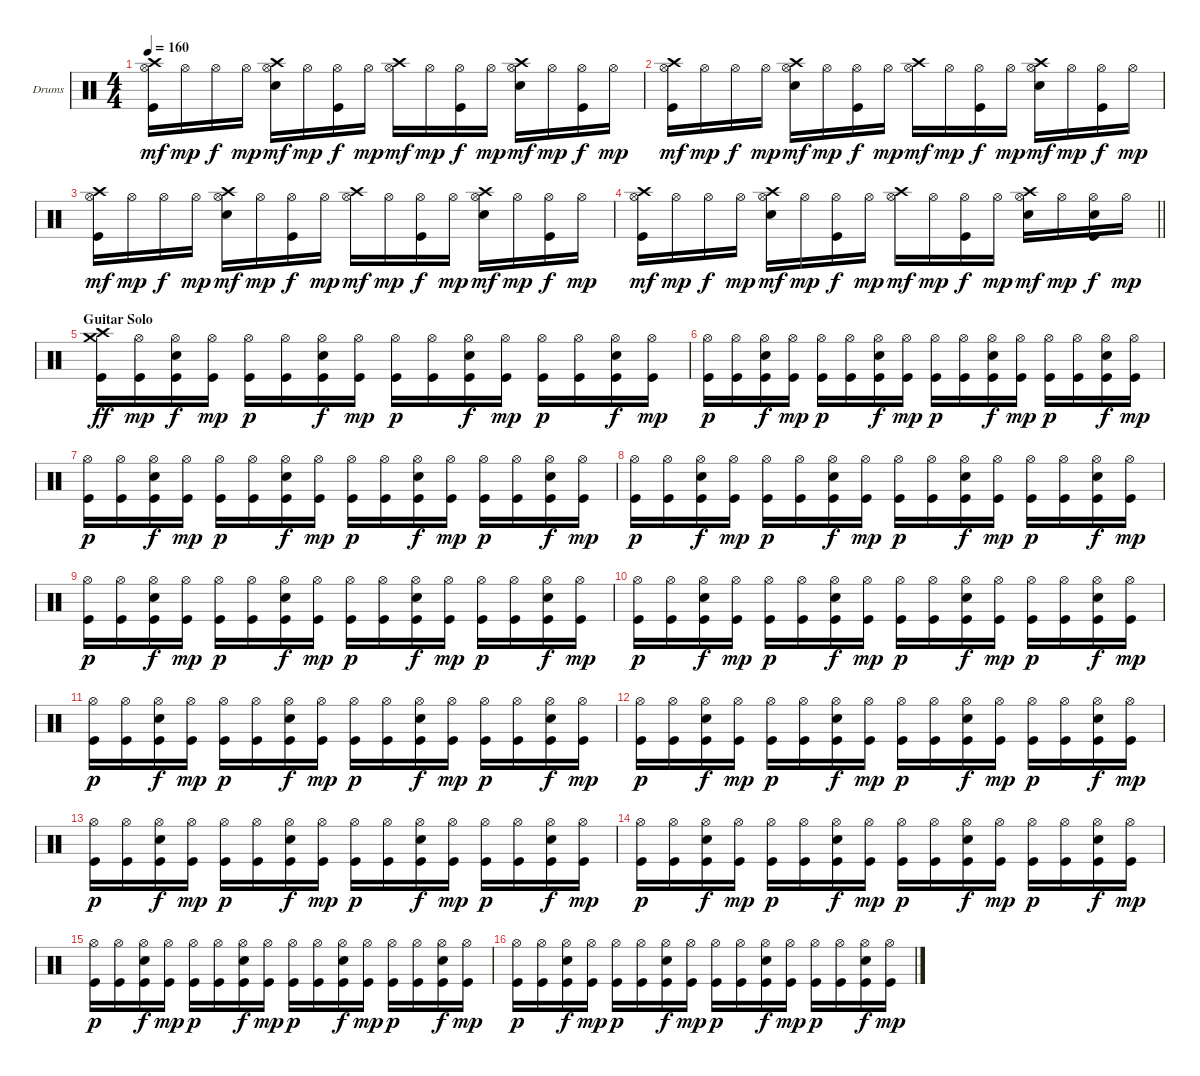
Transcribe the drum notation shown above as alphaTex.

\bracketExtendMode groupsimilarinstruments
\firstSystemTrackNameOrientation horizontal
\otherSystemsTrackNameOrientation horizontal
\track ("Drumkit" "Drums") {instrument percussion}
\staff {score}
\articulation defaults
\ts (4 4)
\tempo 160
\clef neutral
\ks c
("Crash high (hit)" "Hi-Hat (open)" "Kick (hit)").16{dy mf} "Hi-Hat (open)".16{dy mp} "Hi-Hat (open)".16{dy f} "Hi-Hat (open)".16{dy mp} ("Crash high (hit)" "Hi-Hat (open)" "Snare (hit) 2").16{dy mf} "Hi-Hat (open)".16{dy mp} ("Hi-Hat (open)" "Kick (hit)").16{dy f} "Hi-Hat (open)".16{dy mp} ("Crash high (hit)" "Hi-Hat (open)").16{dy mf} "Hi-Hat (open)".16{dy mp} ("Hi-Hat (open)" "Kick (hit)").16{dy f} "Hi-Hat (open)".16{dy mp} ("Crash high (hit)" "Hi-Hat (open)" "Snare (hit) 2").16{dy mf} "Hi-Hat (open)".16{dy mp} ("Hi-Hat (open)" "Kick (hit)").16{dy f} "Hi-Hat (open)".16{dy mp} |
("Crash high (hit)" "Hi-Hat (open)" "Kick (hit)").16{dy mf} "Hi-Hat (open)".16{dy mp} "Hi-Hat (open)".16{dy f} "Hi-Hat (open)".16{dy mp} ("Crash high (hit)" "Hi-Hat (open)" "Snare (hit) 2").16{dy mf} "Hi-Hat (open)".16{dy mp} ("Hi-Hat (open)" "Kick (hit)").16{dy f} "Hi-Hat (open)".16{dy mp} ("Crash high (hit)" "Hi-Hat (open)").16{dy mf} "Hi-Hat (open)".16{dy mp} ("Hi-Hat (open)" "Kick (hit)").16{dy f} "Hi-Hat (open)".16{dy mp} ("Crash high (hit)" "Hi-Hat (open)" "Snare (hit) 2").16{dy mf} "Hi-Hat (open)".16{dy mp} ("Hi-Hat (open)" "Kick (hit)").16{dy f} "Hi-Hat (open)".16{dy mp} |
("Crash high (hit)" "Hi-Hat (open)" "Kick (hit)").16{dy mf} "Hi-Hat (open)".16{dy mp} "Hi-Hat (open)".16{dy f} "Hi-Hat (open)".16{dy mp} ("Crash high (hit)" "Hi-Hat (open)" "Snare (hit) 2").16{dy mf} "Hi-Hat (open)".16{dy mp} ("Hi-Hat (open)" "Kick (hit)").16{dy f} "Hi-Hat (open)".16{dy mp} ("Crash high (hit)" "Hi-Hat (open)").16{dy mf} "Hi-Hat (open)".16{dy mp} ("Hi-Hat (open)" "Kick (hit)").16{dy f} "Hi-Hat (open)".16{dy mp} ("Crash high (hit)" "Hi-Hat (open)" "Snare (hit) 2").16{dy mf} "Hi-Hat (open)".16{dy mp} ("Hi-Hat (open)" "Kick (hit)").16{dy f} "Hi-Hat (open)".16{dy mp} |
\barLineRight lightlight
("Crash high (hit)" "Hi-Hat (open)" "Kick (hit)").16{dy mf} "Hi-Hat (open)".16{dy mp} "Hi-Hat (open)".16{dy f} "Hi-Hat (open)".16{dy mp} ("Crash high (hit)" "Hi-Hat (open)" "Snare (hit) 2").16{dy mf} "Hi-Hat (open)".16{dy mp} ("Hi-Hat (open)" "Kick (hit)").16{dy f} "Hi-Hat (open)".16{dy mp} ("Crash high (hit)" "Hi-Hat (open)").16{dy mf} "Hi-Hat (open)".16{dy mp} ("Hi-Hat (open)" "Kick (hit)").16{dy f} "Hi-Hat (open)".16{dy mp} ("Crash high (hit)" "Hi-Hat (open)" "Snare (hit) 2").16{dy mf} "Hi-Hat (open)".16{dy mp} ("Hi-Hat (open)" "Snare (hit) 2" "Kick (hit)").16{dy f} "Hi-Hat (open)".16{dy mp} |
\section ("" "Guitar Solo")
("Crash medium (hit)" "Crash high (hit)" "Kick (hit)").16{dy ff} ("Hi-Hat (open)" "Kick (hit)").16{dy mp} ("Hi-Hat (open)" "Snare (hit) 2" "Kick (hit)").16{dy f} ("Hi-Hat (open)" "Kick (hit)").16{dy mp} ("Hi-Hat (open)" "Kick (hit)").16{dy p} ("Hi-Hat (open)" "Kick (hit)").16 ("Hi-Hat (open)" "Snare (hit) 2" "Kick (hit)").16{dy f} ("Hi-Hat (open)" "Kick (hit)").16{dy mp} ("Hi-Hat (open)" "Kick (hit)").16{dy p} ("Hi-Hat (open)" "Kick (hit)").16 ("Hi-Hat (open)" "Snare (hit) 2" "Kick (hit)").16{dy f} ("Hi-Hat (open)" "Kick (hit)").16{dy mp} ("Hi-Hat (open)" "Kick (hit)").16{dy p} ("Hi-Hat (open)" "Kick (hit)").16 ("Hi-Hat (open)" "Snare (hit) 2" "Kick (hit)").16{dy f} ("Hi-Hat (open)" "Kick (hit)").16{dy mp} |
("Hi-Hat (open)" "Kick (hit)").16{dy p} ("Hi-Hat (open)" "Kick (hit)").16 ("Hi-Hat (open)" "Snare (hit) 2" "Kick (hit)").16{dy f} ("Hi-Hat (open)" "Kick (hit)").16{dy mp} ("Hi-Hat (open)" "Kick (hit)").16{dy p} ("Hi-Hat (open)" "Kick (hit)").16 ("Hi-Hat (open)" "Snare (hit) 2" "Kick (hit)").16{dy f} ("Hi-Hat (open)" "Kick (hit)").16{dy mp} ("Hi-Hat (open)" "Kick (hit)").16{dy p} ("Hi-Hat (open)" "Kick (hit)").16 ("Hi-Hat (open)" "Snare (hit) 2" "Kick (hit)").16{dy f} ("Hi-Hat (open)" "Kick (hit)").16{dy mp} ("Hi-Hat (open)" "Kick (hit)").16{dy p} ("Hi-Hat (open)" "Kick (hit)").16 ("Hi-Hat (open)" "Snare (hit) 2" "Kick (hit)").16{dy f} ("Hi-Hat (open)" "Kick (hit)").16{dy mp} |
("Hi-Hat (open)" "Kick (hit)").16{dy p} ("Hi-Hat (open)" "Kick (hit)").16 ("Hi-Hat (open)" "Snare (hit) 2" "Kick (hit)").16{dy f} ("Hi-Hat (open)" "Kick (hit)").16{dy mp} ("Hi-Hat (open)" "Kick (hit)").16{dy p} ("Hi-Hat (open)" "Kick (hit)").16 ("Hi-Hat (open)" "Snare (hit) 2" "Kick (hit)").16{dy f} ("Hi-Hat (open)" "Kick (hit)").16{dy mp} ("Hi-Hat (open)" "Kick (hit)").16{dy p} ("Hi-Hat (open)" "Kick (hit)").16 ("Hi-Hat (open)" "Snare (hit) 2" "Kick (hit)").16{dy f} ("Hi-Hat (open)" "Kick (hit)").16{dy mp} ("Hi-Hat (open)" "Kick (hit)").16{dy p} ("Hi-Hat (open)" "Kick (hit)").16 ("Hi-Hat (open)" "Snare (hit) 2" "Kick (hit)").16{dy f} ("Hi-Hat (open)" "Kick (hit)").16{dy mp} |
("Hi-Hat (open)" "Kick (hit)").16{dy p} ("Hi-Hat (open)" "Kick (hit)").16 ("Hi-Hat (open)" "Snare (hit) 2" "Kick (hit)").16{dy f} ("Hi-Hat (open)" "Kick (hit)").16{dy mp} ("Hi-Hat (open)" "Kick (hit)").16{dy p} ("Hi-Hat (open)" "Kick (hit)").16 ("Hi-Hat (open)" "Snare (hit) 2" "Kick (hit)").16{dy f} ("Hi-Hat (open)" "Kick (hit)").16{dy mp} ("Hi-Hat (open)" "Kick (hit)").16{dy p} ("Hi-Hat (open)" "Kick (hit)").16 ("Hi-Hat (open)" "Snare (hit) 2" "Kick (hit)").16{dy f} ("Hi-Hat (open)" "Kick (hit)").16{dy mp} ("Hi-Hat (open)" "Kick (hit)").16{dy p} ("Hi-Hat (open)" "Kick (hit)").16 ("Hi-Hat (open)" "Snare (hit) 2" "Kick (hit)").16{dy f} ("Hi-Hat (open)" "Kick (hit)").16{dy mp} |
("Hi-Hat (open)" "Kick (hit)").16{dy p} ("Hi-Hat (open)" "Kick (hit)").16 ("Hi-Hat (open)" "Snare (hit) 2" "Kick (hit)").16{dy f} ("Hi-Hat (open)" "Kick (hit)").16{dy mp} ("Hi-Hat (open)" "Kick (hit)").16{dy p} ("Hi-Hat (open)" "Kick (hit)").16 ("Hi-Hat (open)" "Snare (hit) 2" "Kick (hit)").16{dy f} ("Hi-Hat (open)" "Kick (hit)").16{dy mp} ("Hi-Hat (open)" "Kick (hit)").16{dy p} ("Hi-Hat (open)" "Kick (hit)").16 ("Hi-Hat (open)" "Snare (hit) 2" "Kick (hit)").16{dy f} ("Hi-Hat (open)" "Kick (hit)").16{dy mp} ("Hi-Hat (open)" "Kick (hit)").16{dy p} ("Hi-Hat (open)" "Kick (hit)").16 ("Hi-Hat (open)" "Snare (hit) 2" "Kick (hit)").16{dy f} ("Hi-Hat (open)" "Kick (hit)").16{dy mp} |
("Hi-Hat (open)" "Kick (hit)").16{dy p} ("Hi-Hat (open)" "Kick (hit)").16 ("Hi-Hat (open)" "Snare (hit) 2" "Kick (hit)").16{dy f} ("Hi-Hat (open)" "Kick (hit)").16{dy mp} ("Hi-Hat (open)" "Kick (hit)").16{dy p} ("Hi-Hat (open)" "Kick (hit)").16 ("Hi-Hat (open)" "Snare (hit) 2" "Kick (hit)").16{dy f} ("Hi-Hat (open)" "Kick (hit)").16{dy mp} ("Hi-Hat (open)" "Kick (hit)").16{dy p} ("Hi-Hat (open)" "Kick (hit)").16 ("Hi-Hat (open)" "Snare (hit) 2" "Kick (hit)").16{dy f} ("Hi-Hat (open)" "Kick (hit)").16{dy mp} ("Hi-Hat (open)" "Kick (hit)").16{dy p} ("Hi-Hat (open)" "Kick (hit)").16 ("Hi-Hat (open)" "Snare (hit) 2" "Kick (hit)").16{dy f} ("Hi-Hat (open)" "Kick (hit)").16{dy mp} |
("Hi-Hat (open)" "Kick (hit)").16{dy p} ("Hi-Hat (open)" "Kick (hit)").16 ("Hi-Hat (open)" "Snare (hit) 2" "Kick (hit)").16{dy f} ("Hi-Hat (open)" "Kick (hit)").16{dy mp} ("Hi-Hat (open)" "Kick (hit)").16{dy p} ("Hi-Hat (open)" "Kick (hit)").16 ("Hi-Hat (open)" "Snare (hit) 2" "Kick (hit)").16{dy f} ("Hi-Hat (open)" "Kick (hit)").16{dy mp} ("Hi-Hat (open)" "Kick (hit)").16{dy p} ("Hi-Hat (open)" "Kick (hit)").16 ("Hi-Hat (open)" "Snare (hit) 2" "Kick (hit)").16{dy f} ("Hi-Hat (open)" "Kick (hit)").16{dy mp} ("Hi-Hat (open)" "Kick (hit)").16{dy p} ("Hi-Hat (open)" "Kick (hit)").16 ("Hi-Hat (open)" "Snare (hit) 2" "Kick (hit)").16{dy f} ("Hi-Hat (open)" "Kick (hit)").16{dy mp} |
("Hi-Hat (open)" "Kick (hit)").16{dy p} ("Hi-Hat (open)" "Kick (hit)").16 ("Hi-Hat (open)" "Snare (hit) 2" "Kick (hit)").16{dy f} ("Hi-Hat (open)" "Kick (hit)").16{dy mp} ("Hi-Hat (open)" "Kick (hit)").16{dy p} ("Hi-Hat (open)" "Kick (hit)").16 ("Hi-Hat (open)" "Snare (hit) 2" "Kick (hit)").16{dy f} ("Hi-Hat (open)" "Kick (hit)").16{dy mp} ("Hi-Hat (open)" "Kick (hit)").16{dy p} ("Hi-Hat (open)" "Kick (hit)").16 ("Hi-Hat (open)" "Snare (hit) 2" "Kick (hit)").16{dy f} ("Hi-Hat (open)" "Kick (hit)").16{dy mp} ("Hi-Hat (open)" "Kick (hit)").16{dy p} ("Hi-Hat (open)" "Kick (hit)").16 ("Hi-Hat (open)" "Snare (hit) 2" "Kick (hit)").16{dy f} ("Hi-Hat (open)" "Kick (hit)").16{dy mp} |
("Hi-Hat (open)" "Kick (hit)").16{dy p} ("Hi-Hat (open)" "Kick (hit)").16 ("Hi-Hat (open)" "Snare (hit) 2" "Kick (hit)").16{dy f} ("Hi-Hat (open)" "Kick (hit)").16{dy mp} ("Hi-Hat (open)" "Kick (hit)").16{dy p} ("Hi-Hat (open)" "Kick (hit)").16 ("Hi-Hat (open)" "Snare (hit) 2" "Kick (hit)").16{dy f} ("Hi-Hat (open)" "Kick (hit)").16{dy mp} ("Hi-Hat (open)" "Kick (hit)").16{dy p} ("Hi-Hat (open)" "Kick (hit)").16 ("Hi-Hat (open)" "Snare (hit) 2" "Kick (hit)").16{dy f} ("Hi-Hat (open)" "Kick (hit)").16{dy mp} ("Hi-Hat (open)" "Kick (hit)").16{dy p} ("Hi-Hat (open)" "Kick (hit)").16 ("Hi-Hat (open)" "Snare (hit) 2" "Kick (hit)").16{dy f} ("Hi-Hat (open)" "Kick (hit)").16{dy mp} |
("Hi-Hat (open)" "Kick (hit)").16{dy p} ("Hi-Hat (open)" "Kick (hit)").16 ("Hi-Hat (open)" "Snare (hit) 2" "Kick (hit)").16{dy f} ("Hi-Hat (open)" "Kick (hit)").16{dy mp} ("Hi-Hat (open)" "Kick (hit)").16{dy p} ("Hi-Hat (open)" "Kick (hit)").16 ("Hi-Hat (open)" "Snare (hit) 2" "Kick (hit)").16{dy f} ("Hi-Hat (open)" "Kick (hit)").16{dy mp} ("Hi-Hat (open)" "Kick (hit)").16{dy p} ("Hi-Hat (open)" "Kick (hit)").16 ("Hi-Hat (open)" "Snare (hit) 2" "Kick (hit)").16{dy f} ("Hi-Hat (open)" "Kick (hit)").16{dy mp} ("Hi-Hat (open)" "Kick (hit)").16{dy p} ("Hi-Hat (open)" "Kick (hit)").16 ("Hi-Hat (open)" "Snare (hit) 2" "Kick (hit)").16{dy f} ("Hi-Hat (open)" "Kick (hit)").16{dy mp} |
("Hi-Hat (open)" "Kick (hit)").16{dy p} ("Hi-Hat (open)" "Kick (hit)").16 ("Hi-Hat (open)" "Snare (hit) 2" "Kick (hit)").16{dy f} ("Hi-Hat (open)" "Kick (hit)").16{dy mp} ("Hi-Hat (open)" "Kick (hit)").16{dy p} ("Hi-Hat (open)" "Kick (hit)").16 ("Hi-Hat (open)" "Snare (hit) 2" "Kick (hit)").16{dy f} ("Hi-Hat (open)" "Kick (hit)").16{dy mp} ("Hi-Hat (open)" "Kick (hit)").16{dy p} ("Hi-Hat (open)" "Kick (hit)").16 ("Hi-Hat (open)" "Snare (hit) 2" "Kick (hit)").16{dy f} ("Hi-Hat (open)" "Kick (hit)").16{dy mp} ("Hi-Hat (open)" "Kick (hit)").16{dy p} ("Hi-Hat (open)" "Kick (hit)").16 ("Hi-Hat (open)" "Snare (hit) 2" "Kick (hit)").16{dy f} ("Hi-Hat (open)" "Kick (hit)").16{dy mp} |
("Hi-Hat (open)" "Kick (hit)").16{dy p} ("Hi-Hat (open)" "Kick (hit)").16 ("Hi-Hat (open)" "Snare (hit) 2" "Kick (hit)").16{dy f} ("Hi-Hat (open)" "Kick (hit)").16{dy mp} ("Hi-Hat (open)" "Kick (hit)").16{dy p} ("Hi-Hat (open)" "Kick (hit)").16 ("Hi-Hat (open)" "Snare (hit) 2" "Kick (hit)").16{dy f} ("Hi-Hat (open)" "Kick (hit)").16{dy mp} ("Hi-Hat (open)" "Kick (hit)").16{dy p} ("Hi-Hat (open)" "Kick (hit)").16 ("Hi-Hat (open)" "Snare (hit) 2" "Kick (hit)").16{dy f} ("Hi-Hat (open)" "Kick (hit)").16{dy mp} ("Hi-Hat (open)" "Kick (hit)").16{dy p} ("Hi-Hat (open)" "Kick (hit)").16 ("Hi-Hat (open)" "Snare (hit) 2" "Kick (hit)").16{dy f} ("Hi-Hat (open)" "Kick (hit)").16{dy mp}
